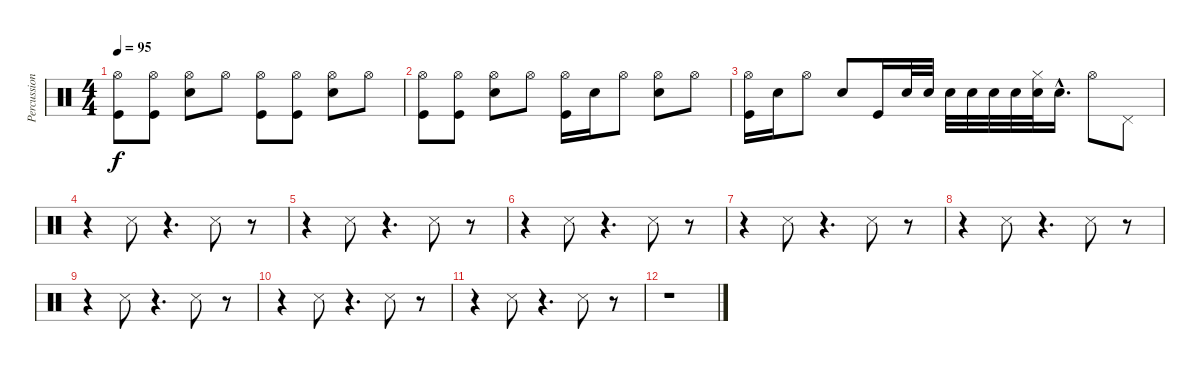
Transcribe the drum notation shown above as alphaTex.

\track ("Percussion" "Percussion") {instrument percussion}
\staff {score}
\articulation defaults
\ts (4 4)
\tempo 95
\clef neutral
\ks c
("Hi-Hat (open)" "Kick (hit)").8{dy f} ("Hi-Hat (open)" "Kick (hit)").8 ("Hi-Hat (open)" "Snare (hit) 2").8 "Hi-Hat (open)".8 ("Hi-Hat (open)" "Kick (hit)").8 ("Hi-Hat (open)" "Kick (hit)").8 ("Hi-Hat (open)" "Snare (hit) 2").8 "Hi-Hat (open)".8 |
("Hi-Hat (open)" "Kick (hit)").8 ("Hi-Hat (open)" "Kick (hit)").8 ("Hi-Hat (open)" "Snare (hit) 2").8 "Hi-Hat (open)".8 ("Hi-Hat (open)" "Kick (hit)").16 "Snare (hit) 2".16 "Hi-Hat (open)".8 ("Hi-Hat (open)" "Snare (hit) 2").8 "Hi-Hat (open)".8 |
("Hi-Hat (open)" "Kick (hit)").16 "Snare (hit) 2".16 "Hi-Hat (open)".8 "Snare (hit) 2".8 "Kick (hit)".16 "Snare (hit) 2".32 "Snare (hit) 2".32 "Snare (hit) 2".32 "Snare (hit) 2".32 "Snare (hit) 2".32 "Snare (hit) 2".32 ("Hi-Hat (closed)" "Snare (hit) 2").32 "Snare (hit) 2"{hac}.16{d} "Hi-Hat (open)".8 "Pedal Hi-Hat (hit)".8 |
r.4 "Snare (side stick) 3".8 r.4{d} "Snare (side stick) 3".8 r.8 |
r.4 "Snare (side stick) 3".8 r.4{d} "Snare (side stick) 3".8 r.8 |
r.4 "Snare (side stick) 3".8 r.4{d} "Snare (side stick) 3".8 r.8 |
r.4 "Snare (side stick) 3".8 r.4{d} "Snare (side stick) 3".8 r.8 |
r.4 "Snare (side stick) 3".8 r.4{d} "Snare (side stick) 3".8 r.8 |
r.4 "Snare (side stick) 3".8 r.4{d} "Snare (side stick) 3".8 r.8 |
r.4 "Snare (side stick) 3".8 r.4{d} "Snare (side stick) 3".8 r.8 |
r.4 "Snare (side stick) 3".8 r.4{d} "Snare (side stick) 3".8 r.8 |
r.1
